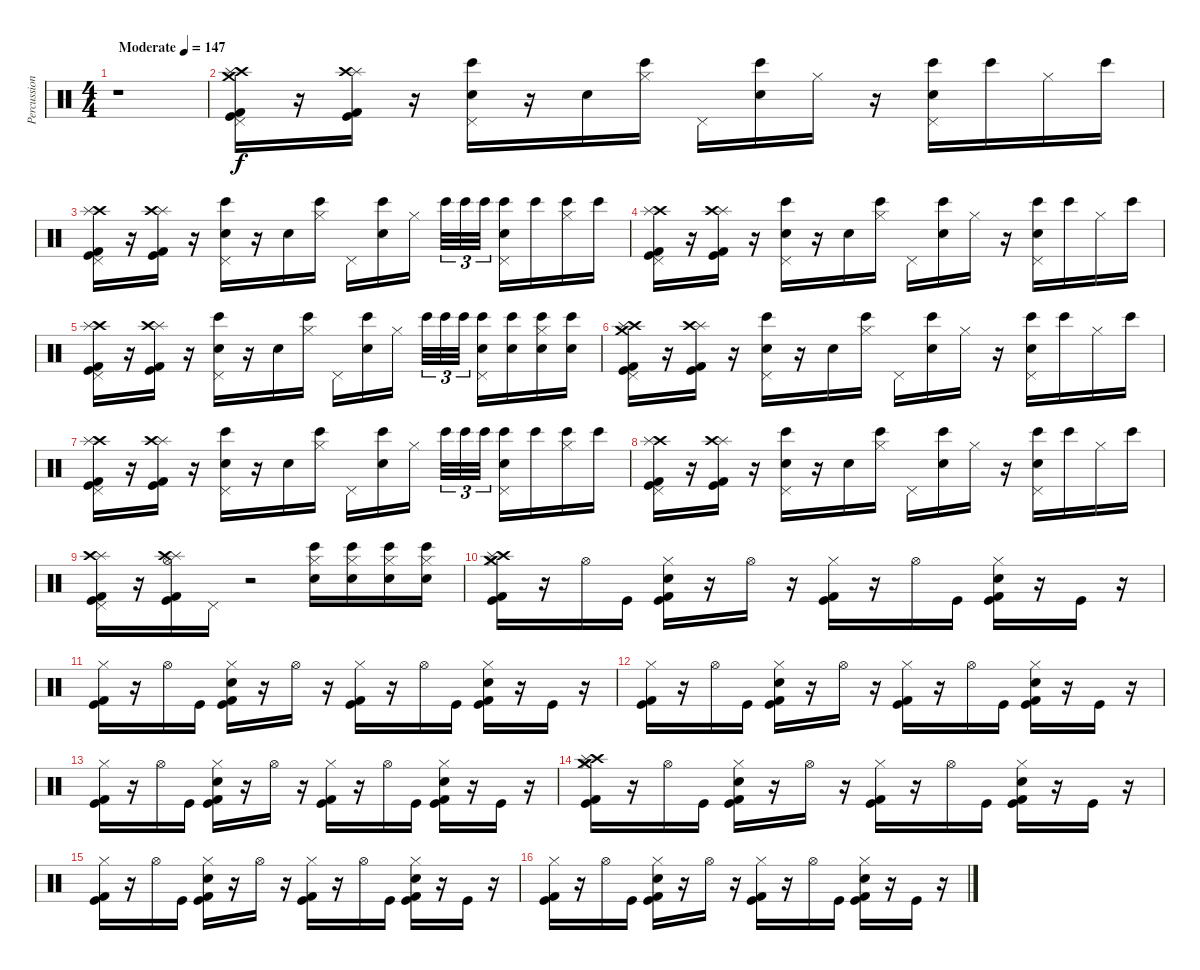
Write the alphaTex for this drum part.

\track ("Percussion (Room Kit)" "Percussion") {instrument percussion}
\staff {score}
\articulation defaults
\ts (4 4)
\tempo (147 "Moderate")
\clef neutral
\ks c
r.1{dy f} |
("Crash medium (hit)" "Crash high (hit)" "Kick (hit) 2" "Kick (hit)" "Splash (hit)" "Pedal Hi-Hat (hit)").16 r.16 ("Kick (hit) 2" "Kick (hit)" "Splash (hit)" "Crash high (hit)").16 r.16 ("Pedal Hi-Hat (hit)" "Hand Clap (hit)" "Bongo High (hit)").16 r.16 "Hand Clap (hit)".16 ("Hi-Hat (closed)" "Bongo High (hit)").16 "Pedal Hi-Hat (hit)".16 ("Hand Clap (hit)" "Bongo High (hit)").16 "Hi-Hat (closed)".16 r.16 ("Pedal Hi-Hat (hit)" "Hand Clap (hit)" "Bongo High (hit)").16 "Bongo High (hit)".16 "Hi-Hat (closed)".16 "Bongo High (hit)".16 |
("Crash high (hit)" "Kick (hit) 2" "Kick (hit)" "Splash (hit)" "Pedal Hi-Hat (hit)").16 r.16 ("Kick (hit) 2" "Kick (hit)" "Splash (hit)" "Crash high (hit)").16 r.16 ("Pedal Hi-Hat (hit)" "Hand Clap (hit)" "Bongo High (hit)").16 r.16 "Hand Clap (hit)".16 ("Hi-Hat (closed)" "Bongo High (hit)").16 "Pedal Hi-Hat (hit)".16 ("Hand Clap (hit)" "Bongo High (hit)").16 "Hi-Hat (closed)".16{beam splitsecondary} "Bongo High (hit)".32{tu (3 2)} "Bongo High (hit)".32{tu (3 2)} "Bongo High (hit)".32{tu (3 2)} ("Pedal Hi-Hat (hit)" "Hand Clap (hit)" "Bongo High (hit)").16 "Bongo High (hit)".16 ("Hi-Hat (closed)" "Bongo High (hit)").16 "Bongo High (hit)".16 |
("Crash high (hit)" "Kick (hit) 2" "Kick (hit)" "Splash (hit)" "Pedal Hi-Hat (hit)").16 r.16 ("Kick (hit) 2" "Kick (hit)" "Splash (hit)" "Crash high (hit)").16 r.16 ("Pedal Hi-Hat (hit)" "Hand Clap (hit)" "Bongo High (hit)").16 r.16 "Hand Clap (hit)".16 ("Hi-Hat (closed)" "Bongo High (hit)").16 "Pedal Hi-Hat (hit)".16 ("Hand Clap (hit)" "Bongo High (hit)").16 "Hi-Hat (closed)".16 r.16 ("Pedal Hi-Hat (hit)" "Hand Clap (hit)" "Bongo High (hit)").16 "Bongo High (hit)".16 "Hi-Hat (closed)".16 "Bongo High (hit)".16 |
("Crash high (hit)" "Kick (hit) 2" "Kick (hit)" "Splash (hit)" "Pedal Hi-Hat (hit)").16 r.16 ("Kick (hit) 2" "Kick (hit)" "Splash (hit)" "Crash high (hit)").16 r.16 ("Pedal Hi-Hat (hit)" "Hand Clap (hit)" "Bongo High (hit)").16 r.16 "Hand Clap (hit)".16 ("Hi-Hat (closed)" "Bongo High (hit)").16 "Pedal Hi-Hat (hit)".16 ("Hand Clap (hit)" "Bongo High (hit)").16 "Hi-Hat (closed)".16{beam splitsecondary} "Bongo High (hit)".32{tu (3 2)} "Bongo High (hit)".32{tu (3 2)} "Bongo High (hit)".32{tu (3 2)} ("Pedal Hi-Hat (hit)" "Hand Clap (hit)" "Bongo High (hit)").16 ("Bongo High (hit)" "Hand Clap (hit)").16 ("Hi-Hat (closed)" "Bongo High (hit)" "Hand Clap (hit)").16 ("Bongo High (hit)" "Hand Clap (hit)").16 |
("Crash medium (hit)" "Crash high (hit)" "Kick (hit) 2" "Kick (hit)" "Splash (hit)" "Pedal Hi-Hat (hit)").16 r.16 ("Kick (hit) 2" "Kick (hit)" "Splash (hit)" "Crash high (hit)").16 r.16 ("Pedal Hi-Hat (hit)" "Hand Clap (hit)" "Bongo High (hit)").16 r.16 "Hand Clap (hit)".16 ("Hi-Hat (closed)" "Bongo High (hit)").16 "Pedal Hi-Hat (hit)".16 ("Hand Clap (hit)" "Bongo High (hit)").16 "Hi-Hat (closed)".16 r.16 ("Pedal Hi-Hat (hit)" "Hand Clap (hit)" "Bongo High (hit)").16 "Bongo High (hit)".16 "Hi-Hat (closed)".16 "Bongo High (hit)".16 |
("Crash high (hit)" "Kick (hit) 2" "Kick (hit)" "Splash (hit)" "Pedal Hi-Hat (hit)").16 r.16 ("Kick (hit) 2" "Kick (hit)" "Splash (hit)" "Crash high (hit)").16 r.16 ("Pedal Hi-Hat (hit)" "Hand Clap (hit)" "Bongo High (hit)").16 r.16 "Hand Clap (hit)".16 ("Hi-Hat (closed)" "Bongo High (hit)").16 "Pedal Hi-Hat (hit)".16 ("Hand Clap (hit)" "Bongo High (hit)").16 "Hi-Hat (closed)".16{beam splitsecondary} "Bongo High (hit)".32{tu (3 2)} "Bongo High (hit)".32{tu (3 2)} "Bongo High (hit)".32{tu (3 2)} ("Pedal Hi-Hat (hit)" "Hand Clap (hit)" "Bongo High (hit)").16 "Bongo High (hit)".16 ("Hi-Hat (closed)" "Bongo High (hit)").16 "Bongo High (hit)".16 |
("Crash high (hit)" "Kick (hit) 2" "Kick (hit)" "Splash (hit)" "Pedal Hi-Hat (hit)").16 r.16 ("Kick (hit) 2" "Kick (hit)" "Splash (hit)" "Crash high (hit)").16 r.16 ("Pedal Hi-Hat (hit)" "Hand Clap (hit)" "Bongo High (hit)").16 r.16 "Hand Clap (hit)".16 ("Hi-Hat (closed)" "Bongo High (hit)").16 "Pedal Hi-Hat (hit)".16 ("Hand Clap (hit)" "Bongo High (hit)").16 "Hi-Hat (closed)".16 r.16 ("Pedal Hi-Hat (hit)" "Hand Clap (hit)" "Bongo High (hit)").16 "Bongo High (hit)".16 "Hi-Hat (closed)".16 "Bongo High (hit)".16 |
("Kick (hit) 2" "Kick (hit)" "Pedal Hi-Hat (hit)" "Splash (hit)" "Crash high (hit)").16 r.16 ("Kick (hit) 2" "Kick (hit)" "Hi-Hat (open)" "Splash (hit)" "Crash high (hit)").16 "Pedal Hi-Hat (hit)".16 r.2 ("Hi-Hat (closed)" "Bongo High (hit)" "Hand Clap (hit)").16 ("Hi-Hat (closed)" "Bongo High (hit)" "Hand Clap (hit)").16 ("Hi-Hat (closed)" "Bongo High (hit)" "Hand Clap (hit)").16 ("Hi-Hat (closed)" "Bongo High (hit)" "Hand Clap (hit)").16 |
("Crash medium (hit)" "Crash high (hit)" "Splash (hit)" "Kick (hit) 2" "Kick (hit)" "Hi-Hat (closed)").16 r.16 "Hi-Hat (open)".16 "Kick (hit)".16 ("Hand Clap (hit)" "Kick (hit) 2" "Kick (hit)" "Hi-Hat (closed)").16 r.16 "Hi-Hat (open)".16 r.16 ("Kick (hit) 2" "Kick (hit)" "Hi-Hat (closed)").16 r.16 "Hi-Hat (open)".16 "Kick (hit)".16 ("Hand Clap (hit)" "Kick (hit) 2" "Kick (hit)" "Hi-Hat (closed)").16 r.16 "Kick (hit)".16 r.16 |
("Kick (hit) 2" "Kick (hit)" "Hi-Hat (closed)").16 r.16 "Hi-Hat (open)".16 "Kick (hit)".16 ("Hand Clap (hit)" "Kick (hit) 2" "Kick (hit)" "Hi-Hat (closed)").16 r.16 "Hi-Hat (open)".16 r.16 ("Kick (hit) 2" "Kick (hit)" "Hi-Hat (closed)").16 r.16 "Hi-Hat (open)".16 "Kick (hit)".16 ("Hand Clap (hit)" "Kick (hit) 2" "Kick (hit)" "Hi-Hat (closed)").16 r.16 "Kick (hit)".16 r.16 |
("Kick (hit) 2" "Kick (hit)" "Hi-Hat (closed)").16 r.16 "Hi-Hat (open)".16 "Kick (hit)".16 ("Hand Clap (hit)" "Kick (hit) 2" "Kick (hit)" "Hi-Hat (closed)").16 r.16 "Hi-Hat (open)".16 r.16 ("Kick (hit) 2" "Kick (hit)" "Hi-Hat (closed)").16 r.16 "Hi-Hat (open)".16 "Kick (hit)".16 ("Hand Clap (hit)" "Kick (hit) 2" "Kick (hit)" "Hi-Hat (closed)").16 r.16 "Kick (hit)".16 r.16 |
("Kick (hit) 2" "Kick (hit)" "Hi-Hat (closed)").16 r.16 "Hi-Hat (open)".16 "Kick (hit)".16 ("Hand Clap (hit)" "Kick (hit) 2" "Kick (hit)" "Hi-Hat (closed)").16 r.16 "Hi-Hat (open)".16 r.16 ("Kick (hit) 2" "Kick (hit)" "Hi-Hat (closed)").16 r.16 "Hi-Hat (open)".16 "Kick (hit)".16 ("Hand Clap (hit)" "Kick (hit) 2" "Kick (hit)" "Hi-Hat (closed)").16 r.16 "Kick (hit)".16 r.16 |
("Crash medium (hit)" "Crash high (hit)" "Splash (hit)" "Kick (hit) 2" "Kick (hit)" "Hi-Hat (closed)").16 r.16 "Hi-Hat (open)".16 "Kick (hit)".16 ("Hand Clap (hit)" "Kick (hit) 2" "Kick (hit)" "Hi-Hat (closed)").16 r.16 "Hi-Hat (open)".16 r.16 ("Kick (hit) 2" "Kick (hit)" "Hi-Hat (closed)").16 r.16 "Hi-Hat (open)".16 "Kick (hit)".16 ("Hand Clap (hit)" "Kick (hit) 2" "Kick (hit)" "Hi-Hat (closed)").16 r.16 "Kick (hit)".16 r.16 |
("Kick (hit) 2" "Kick (hit)" "Hi-Hat (closed)").16 r.16 "Hi-Hat (open)".16 "Kick (hit)".16 ("Hand Clap (hit)" "Kick (hit) 2" "Kick (hit)" "Hi-Hat (closed)").16 r.16 "Hi-Hat (open)".16 r.16 ("Kick (hit) 2" "Kick (hit)" "Hi-Hat (closed)").16 r.16 "Hi-Hat (open)".16 "Kick (hit)".16 ("Hand Clap (hit)" "Kick (hit) 2" "Kick (hit)" "Hi-Hat (closed)").16 r.16 "Kick (hit)".16 r.16 |
("Kick (hit) 2" "Kick (hit)" "Hi-Hat (closed)").16 r.16 "Hi-Hat (open)".16 "Kick (hit)".16 ("Hand Clap (hit)" "Kick (hit) 2" "Kick (hit)" "Hi-Hat (closed)").16 r.16 "Hi-Hat (open)".16 r.16 ("Kick (hit) 2" "Kick (hit)" "Hi-Hat (closed)").16 r.16 "Hi-Hat (open)".16 "Kick (hit)".16 ("Hand Clap (hit)" "Kick (hit) 2" "Kick (hit)" "Hi-Hat (closed)").16 r.16 "Kick (hit)".16 r.16
